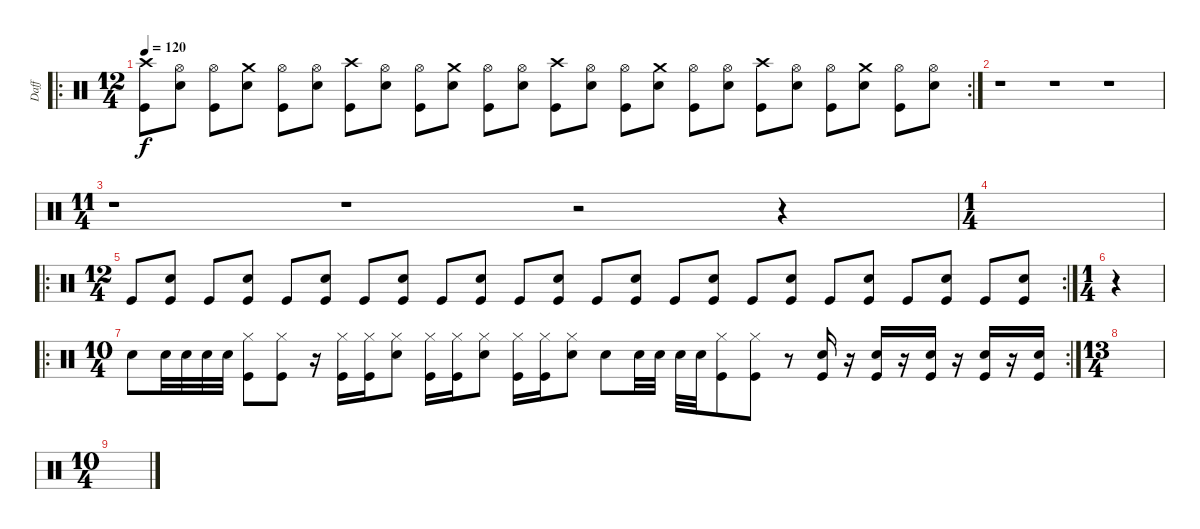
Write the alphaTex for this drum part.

\track ("Daff" "Daff") {instrument percussion}
\staff {score}
\articulation defaults
\ro
\rc 2
\ts (12 4)
\tempo 120
\clef neutral
\ks c
("Crash high (hit)" "Kick (hit)").8{dy f} ("Hi-Hat (open)" "Snare (hit) 2").8 ("Hi-Hat (open)" "Kick (hit)").8 ("Crash medium (hit)" "Snare (hit) 2").8 ("Hi-Hat (open)" "Kick (hit)").8 ("Hi-Hat (open)" "Snare (hit) 2").8 ("Crash high (hit)" "Kick (hit)").8 ("Hi-Hat (open)" "Snare (hit) 2").8 ("Hi-Hat (open)" "Kick (hit)").8 ("Crash medium (hit)" "Snare (hit) 2").8 ("Hi-Hat (open)" "Kick (hit)").8 ("Hi-Hat (open)" "Snare (hit) 2").8 ("Crash high (hit)" "Kick (hit)").8 ("Hi-Hat (open)" "Snare (hit) 2").8 ("Hi-Hat (open)" "Kick (hit)").8 ("Crash medium (hit)" "Snare (hit) 2").8 ("Hi-Hat (open)" "Kick (hit)").8 ("Hi-Hat (open)" "Snare (hit) 2").8 ("Crash high (hit)" "Kick (hit)").8 ("Hi-Hat (open)" "Snare (hit) 2").8 ("Hi-Hat (open)" "Kick (hit)").8 ("Crash medium (hit)" "Snare (hit) 2").8 ("Hi-Hat (open)" "Kick (hit)").8 ("Hi-Hat (open)" "Snare (hit) 2").8 |
r.1 r.1 r.1 |
\ts (11 4)
r.1 r.1 r.2 r.4 |
\ts (1 4)
|
\ro
\rc 2
\ts (12 4)
"Kick (hit)".8 ("Snare (hit) 2" "Kick (hit)").8 "Kick (hit)".8 ("Snare (hit) 2" "Kick (hit)").8 "Kick (hit)".8 ("Snare (hit) 2" "Kick (hit)").8 "Kick (hit)".8 ("Snare (hit) 2" "Kick (hit)").8 "Kick (hit)".8 ("Snare (hit) 2" "Kick (hit)").8 "Kick (hit)".8 ("Snare (hit) 2" "Kick (hit)").8 "Kick (hit)".8 ("Snare (hit) 2" "Kick (hit)").8 "Kick (hit)".8 ("Snare (hit) 2" "Kick (hit)").8 "Kick (hit)".8 ("Snare (hit) 2" "Kick (hit)").8 "Kick (hit)".8 ("Snare (hit) 2" "Kick (hit)").8 "Kick (hit)".8 ("Snare (hit) 2" "Kick (hit)").8 "Kick (hit)".8 ("Snare (hit) 2" "Kick (hit)").8 |
\ts (1 4)
r.4 |
\ro
\rc 2
\ts (10 4)
"Snare (hit) 2".8 "Snare (hit) 2".32 "Snare (hit) 2".32 "Snare (hit) 2".32 "Snare (hit) 2".32 ("Hi-Hat (closed)" "Kick (hit)").8 ("Hi-Hat (closed)" "Kick (hit)").8 r.16 ("Hi-Hat (closed)" "Kick (hit)").16 ("Hi-Hat (closed)" "Kick (hit)").16 ("Hi-Hat (closed)" "Snare (hit) 2").8 ("Hi-Hat (closed)" "Kick (hit)").16 ("Hi-Hat (closed)" "Kick (hit)").16 ("Hi-Hat (closed)" "Snare (hit) 2").8 ("Hi-Hat (closed)" "Kick (hit)").16 ("Hi-Hat (closed)" "Kick (hit)").16 ("Hi-Hat (closed)" "Snare (hit) 2").8 "Snare (hit) 2".8 "Snare (hit) 2".32 "Snare (hit) 2".32 "Snare (hit) 2".32 "Snare (hit) 2".32 ("Hi-Hat (closed)" "Kick (hit)").8 ("Hi-Hat (closed)" "Kick (hit)").8 r.8 ("Snare (hit) 2" "Kick (hit)").16 r.16 ("Snare (hit) 2" "Kick (hit)").16 r.16 ("Snare (hit) 2" "Kick (hit)").16 r.16 ("Snare (hit) 2" "Kick (hit)").16 r.16 ("Snare (hit) 2" "Kick (hit)").16 |
\ts (13 4)
|
\ts (10 4)
